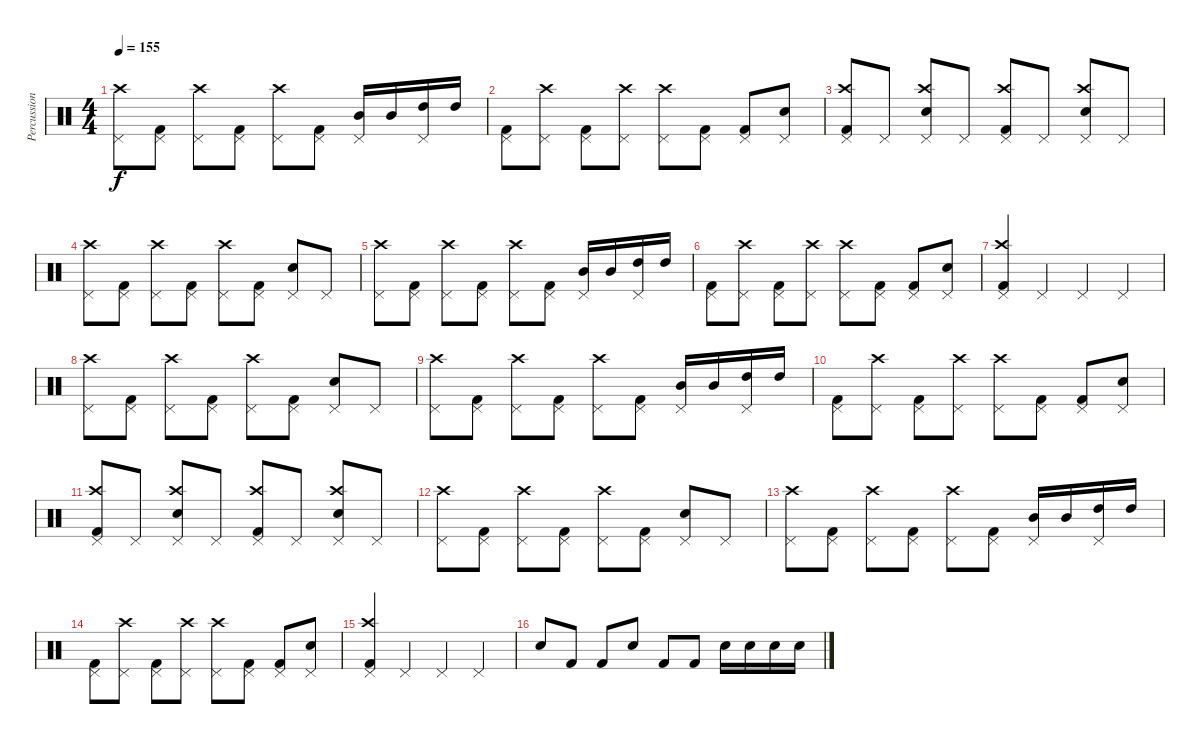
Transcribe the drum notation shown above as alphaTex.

\track ("Percussion" "Percussion") {instrument percussion}
\staff {score}
\articulation defaults
\ts (4 4)
\tempo 155
\clef neutral
\ks c
("Pedal Hi-Hat (hit)" "Crash high (hit)").8{dy f} ("Pedal Hi-Hat (hit)" "Kick (hit) 2").8 ("Pedal Hi-Hat (hit)" "Crash high (hit)").8 ("Pedal Hi-Hat (hit)" "Kick (hit) 2").8 ("Pedal Hi-Hat (hit)" "Crash high (hit)").8 ("Pedal Hi-Hat (hit)" "Kick (hit) 2").8 ("Pedal Hi-Hat (hit)" "Mid Tom (hit)").16 "Mid Tom (hit)".16 ("Pedal Hi-Hat (hit)" "High Tom (hit)").16 "High Tom (hit)".16 |
("Pedal Hi-Hat (hit)" "Kick (hit) 2").8 ("Pedal Hi-Hat (hit)" "Crash high (hit)").8 ("Pedal Hi-Hat (hit)" "Kick (hit) 2").8 ("Pedal Hi-Hat (hit)" "Crash high (hit)").8 ("Pedal Hi-Hat (hit)" "Crash high (hit)").8 ("Pedal Hi-Hat (hit)" "Kick (hit) 2").8 ("Pedal Hi-Hat (hit)" "Kick (hit) 2").8 ("Pedal Hi-Hat (hit)" "Electric Snare (hit)").8 |
("Pedal Hi-Hat (hit)" "Kick (hit) 2" "Crash high (hit)").8 "Pedal Hi-Hat (hit)".8 ("Pedal Hi-Hat (hit)" "Electric Snare (hit)" "Crash high (hit)").8 "Pedal Hi-Hat (hit)".8 ("Pedal Hi-Hat (hit)" "Kick (hit) 2" "Crash high (hit)").8 "Pedal Hi-Hat (hit)".8 ("Pedal Hi-Hat (hit)" "Electric Snare (hit)" "Crash high (hit)").8 "Pedal Hi-Hat (hit)".8 |
("Pedal Hi-Hat (hit)" "Crash high (hit)").8 ("Pedal Hi-Hat (hit)" "Kick (hit) 2").8 ("Pedal Hi-Hat (hit)" "Crash high (hit)").8 ("Pedal Hi-Hat (hit)" "Kick (hit) 2").8 ("Pedal Hi-Hat (hit)" "Crash high (hit)").8 ("Pedal Hi-Hat (hit)" "Kick (hit) 2").8 ("Pedal Hi-Hat (hit)" "Electric Snare (hit)").8 "Pedal Hi-Hat (hit)".8 |
("Pedal Hi-Hat (hit)" "Crash high (hit)").8 ("Pedal Hi-Hat (hit)" "Kick (hit) 2").8 ("Pedal Hi-Hat (hit)" "Crash high (hit)").8 ("Pedal Hi-Hat (hit)" "Kick (hit) 2").8 ("Pedal Hi-Hat (hit)" "Crash high (hit)").8 ("Pedal Hi-Hat (hit)" "Kick (hit) 2").8 ("Pedal Hi-Hat (hit)" "Mid Tom (hit)").16 "Mid Tom (hit)".16 ("Pedal Hi-Hat (hit)" "High Tom (hit)").16 "High Tom (hit)".16 |
("Pedal Hi-Hat (hit)" "Kick (hit) 2").8 ("Pedal Hi-Hat (hit)" "Crash high (hit)").8 ("Pedal Hi-Hat (hit)" "Kick (hit) 2").8 ("Pedal Hi-Hat (hit)" "Crash high (hit)").8 ("Pedal Hi-Hat (hit)" "Crash high (hit)").8 ("Pedal Hi-Hat (hit)" "Kick (hit) 2").8 ("Pedal Hi-Hat (hit)" "Kick (hit) 2").8 ("Pedal Hi-Hat (hit)" "Electric Snare (hit)").8 |
("Pedal Hi-Hat (hit)" "Kick (hit) 2" "Crash high (hit)").4 "Pedal Hi-Hat (hit)".4 "Pedal Hi-Hat (hit)".4 "Pedal Hi-Hat (hit)".4 |
("Pedal Hi-Hat (hit)" "Crash high (hit)").8 ("Pedal Hi-Hat (hit)" "Kick (hit) 2").8 ("Pedal Hi-Hat (hit)" "Crash high (hit)").8 ("Pedal Hi-Hat (hit)" "Kick (hit) 2").8 ("Pedal Hi-Hat (hit)" "Crash high (hit)").8 ("Pedal Hi-Hat (hit)" "Kick (hit) 2").8 ("Pedal Hi-Hat (hit)" "Electric Snare (hit)").8 "Pedal Hi-Hat (hit)".8 |
("Pedal Hi-Hat (hit)" "Crash high (hit)").8 ("Pedal Hi-Hat (hit)" "Kick (hit) 2").8 ("Pedal Hi-Hat (hit)" "Crash high (hit)").8 ("Pedal Hi-Hat (hit)" "Kick (hit) 2").8 ("Pedal Hi-Hat (hit)" "Crash high (hit)").8 ("Pedal Hi-Hat (hit)" "Kick (hit) 2").8 ("Pedal Hi-Hat (hit)" "Mid Tom (hit)").16 "Mid Tom (hit)".16 ("Pedal Hi-Hat (hit)" "High Tom (hit)").16 "High Tom (hit)".16 |
("Pedal Hi-Hat (hit)" "Kick (hit) 2").8 ("Pedal Hi-Hat (hit)" "Crash high (hit)").8 ("Pedal Hi-Hat (hit)" "Kick (hit) 2").8 ("Pedal Hi-Hat (hit)" "Crash high (hit)").8 ("Pedal Hi-Hat (hit)" "Crash high (hit)").8 ("Pedal Hi-Hat (hit)" "Kick (hit) 2").8 ("Pedal Hi-Hat (hit)" "Kick (hit) 2").8 ("Pedal Hi-Hat (hit)" "Electric Snare (hit)").8 |
("Pedal Hi-Hat (hit)" "Kick (hit) 2" "Crash high (hit)").8 "Pedal Hi-Hat (hit)".8 ("Pedal Hi-Hat (hit)" "Electric Snare (hit)" "Crash high (hit)").8 "Pedal Hi-Hat (hit)".8 ("Pedal Hi-Hat (hit)" "Kick (hit) 2" "Crash high (hit)").8 "Pedal Hi-Hat (hit)".8 ("Pedal Hi-Hat (hit)" "Electric Snare (hit)" "Crash high (hit)").8 "Pedal Hi-Hat (hit)".8 |
("Pedal Hi-Hat (hit)" "Crash high (hit)").8 ("Pedal Hi-Hat (hit)" "Kick (hit) 2").8 ("Pedal Hi-Hat (hit)" "Crash high (hit)").8 ("Pedal Hi-Hat (hit)" "Kick (hit) 2").8 ("Pedal Hi-Hat (hit)" "Crash high (hit)").8 ("Pedal Hi-Hat (hit)" "Kick (hit) 2").8 ("Pedal Hi-Hat (hit)" "Electric Snare (hit)").8 "Pedal Hi-Hat (hit)".8 |
("Pedal Hi-Hat (hit)" "Crash high (hit)").8 ("Pedal Hi-Hat (hit)" "Kick (hit) 2").8 ("Pedal Hi-Hat (hit)" "Crash high (hit)").8 ("Pedal Hi-Hat (hit)" "Kick (hit) 2").8 ("Pedal Hi-Hat (hit)" "Crash high (hit)").8 ("Pedal Hi-Hat (hit)" "Kick (hit) 2").8 ("Pedal Hi-Hat (hit)" "Mid Tom (hit)").16 "Mid Tom (hit)".16 ("Pedal Hi-Hat (hit)" "High Tom (hit)").16 "High Tom (hit)".16 |
("Pedal Hi-Hat (hit)" "Kick (hit) 2").8 ("Pedal Hi-Hat (hit)" "Crash high (hit)").8 ("Pedal Hi-Hat (hit)" "Kick (hit) 2").8 ("Pedal Hi-Hat (hit)" "Crash high (hit)").8 ("Pedal Hi-Hat (hit)" "Crash high (hit)").8 ("Pedal Hi-Hat (hit)" "Kick (hit) 2").8 ("Pedal Hi-Hat (hit)" "Kick (hit) 2").8 ("Pedal Hi-Hat (hit)" "Electric Snare (hit)").8 |
("Pedal Hi-Hat (hit)" "Kick (hit) 2" "Crash high (hit)").4 "Pedal Hi-Hat (hit)".4 "Pedal Hi-Hat (hit)".4 "Pedal Hi-Hat (hit)".4 |
"Electric Snare (hit)".8 "Kick (hit) 2".8 "Kick (hit) 2".8 "Electric Snare (hit)".8 "Kick (hit) 2".8 "Kick (hit) 2".8 "Electric Snare (hit)".16 "Electric Snare (hit)".16 "Electric Snare (hit)".16 "Electric Snare (hit)".16
